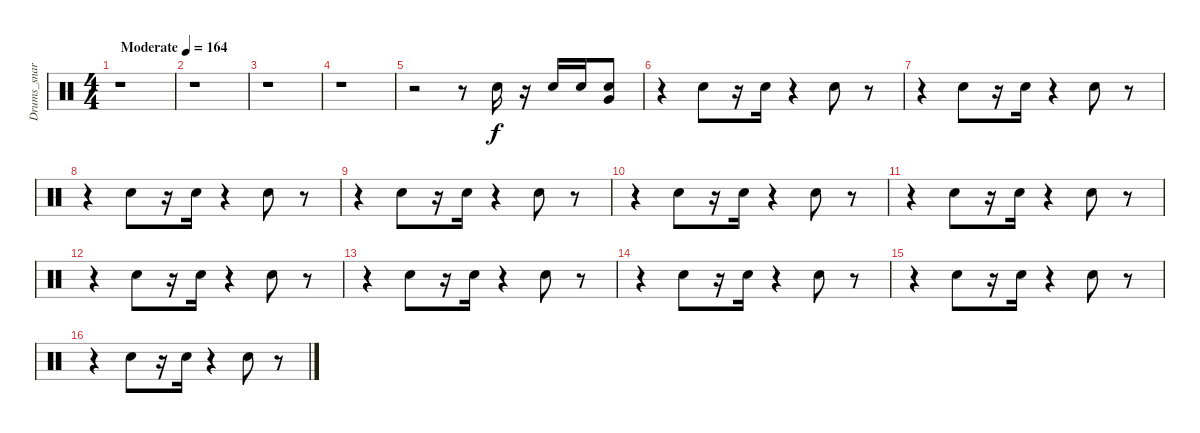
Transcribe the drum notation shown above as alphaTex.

\track ("Drums_snare&tom" "Drums_snar") {instrument percussion}
\staff {score}
\articulation defaults
\ts (4 4)
\tempo (164 "Moderate")
\clef neutral
\ks c
r.1{dy f} |
r.1 |
r.1 |
r.1 |
r.2 r.8 "Snare (hit) 2".16 r.16 "Snare (hit) 2".16 "Snare (hit) 2".16 ("Very Low Tom (hit)" "Snare (hit) 2").8 |
r.4 "Snare (hit) 2".8 r.16 "Snare (hit) 2".16 r.4 "Snare (hit) 2".8 r.8 |
r.4 "Snare (hit) 2".8 r.16 "Snare (hit) 2".16 r.4 "Snare (hit) 2".8 r.8 |
r.4 "Snare (hit) 2".8 r.16 "Snare (hit) 2".16 r.4 "Snare (hit) 2".8 r.8 |
r.4 "Snare (hit) 2".8 r.16 "Snare (hit) 2".16 r.4 "Snare (hit) 2".8 r.8 |
r.4 "Snare (hit) 2".8 r.16 "Snare (hit) 2".16 r.4 "Snare (hit) 2".8 r.8 |
r.4 "Snare (hit) 2".8 r.16 "Snare (hit) 2".16 r.4 "Snare (hit) 2".8 r.8 |
r.4 "Snare (hit) 2".8 r.16 "Snare (hit) 2".16 r.4 "Snare (hit) 2".8 r.8 |
r.4 "Snare (hit) 2".8 r.16 "Snare (hit) 2".16 r.4 "Snare (hit) 2".8 r.8 |
r.4 "Snare (hit) 2".8 r.16 "Snare (hit) 2".16 r.4 "Snare (hit) 2".8 r.8 |
r.4 "Snare (hit) 2".8 r.16 "Snare (hit) 2".16 r.4 "Snare (hit) 2".8 r.8 |
r.4 "Snare (hit) 2".8 r.16 "Snare (hit) 2".16 r.4 "Snare (hit) 2".8 r.8
